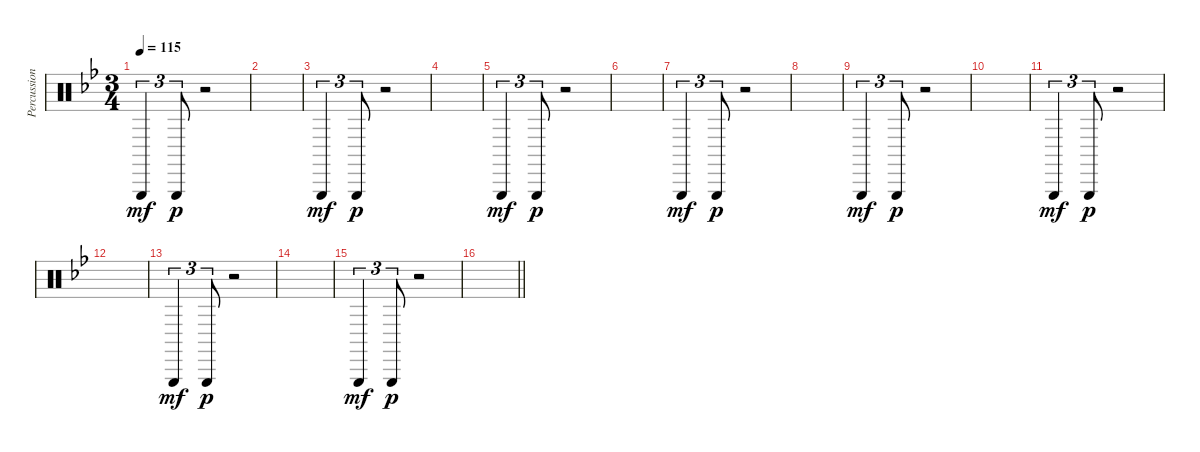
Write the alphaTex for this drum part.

\track ("Percussion" "Percussion") {instrument percussion}
\staff {score}
\articulation defaults
\ts (3 4)
\tempo 115
\clef neutral
\ks gminor "Triangle (hit)".4{tu (3 2) dy mf} "Triangle (hit)".8{tu (3 2) dy p}
r.2 |
|
"Triangle (hit)".4{tu (3 2) dy mf} "Triangle (hit)".8{tu (3 2) dy p} r.2 |
|
"Triangle (hit)".4{tu (3 2) dy mf} "Triangle (hit)".8{tu (3 2) dy p} r.2 |
|
"Triangle (hit)".4{tu (3 2) dy mf} "Triangle (hit)".8{tu (3 2) dy p} r.2 |
|
"Triangle (hit)".4{tu (3 2) dy mf} "Triangle (hit)".8{tu (3 2) dy p} r.2 |
|
"Triangle (hit)".4{tu (3 2) dy mf} "Triangle (hit)".8{tu (3 2) dy p} r.2 |
|
"Triangle (hit)".4{tu (3 2) dy mf} "Triangle (hit)".8{tu (3 2) dy p} r.2 |
|
"Triangle (hit)".4{tu (3 2) dy mf} "Triangle (hit)".8{tu (3 2) dy p} r.2 |
\barLineRight lightlight
